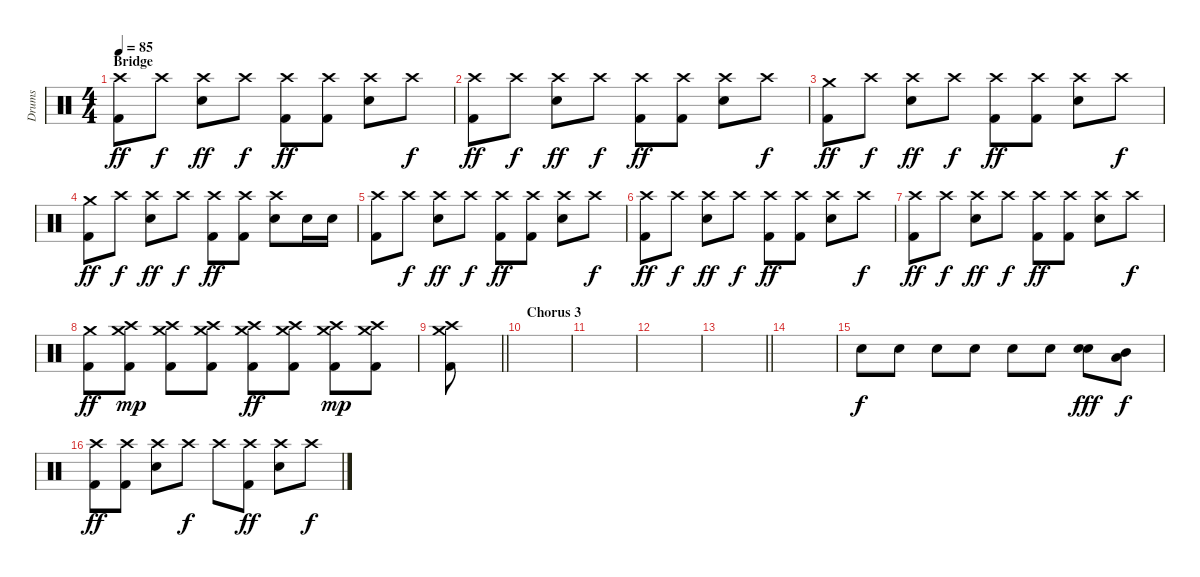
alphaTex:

\track ("Drums" "Drums") {instrument percussion}
\staff {score}
\articulation defaults
\ts (4 4)
\section ("" "Bridge")
\tempo 85
\clef neutral
\ks c
("Crash high (hit)" "Kick (hit) 2").8{dy ff} "Crash high (hit)".8{dy f} ("Crash high (hit)" "Electric Snare (hit)").8{dy ff} "Crash high (hit)".8{dy f} ("Crash high (hit)" "Kick (hit) 2").8{dy ff} ("Crash high (hit)" "Kick (hit) 2").8 ("Crash high (hit)" "Electric Snare (hit)").8 "Crash high (hit)".8{dy f} |
("Crash high (hit)" "Kick (hit) 2").8{dy ff} "Crash high (hit)".8{dy f} ("Crash high (hit)" "Electric Snare (hit)").8{dy ff} "Crash high (hit)".8{dy f} ("Crash high (hit)" "Kick (hit) 2").8{dy ff} ("Crash high (hit)" "Kick (hit) 2").8 ("Crash high (hit)" "Electric Snare (hit)").8 "Crash high (hit)".8{dy f} |
("Crash medium (hit)" "Kick (hit) 2").8{dy ff} "Crash high (hit)".8{dy f} ("Crash high (hit)" "Electric Snare (hit)").8{dy ff} "Crash high (hit)".8{dy f} ("Crash high (hit)" "Kick (hit) 2").8{dy ff} ("Crash high (hit)" "Kick (hit) 2").8 ("Crash high (hit)" "Electric Snare (hit)").8 "Crash high (hit)".8{dy f} |
("Crash medium (hit)" "Kick (hit) 2").8{dy ff} "Crash high (hit)".8{dy f} ("Crash high (hit)" "Electric Snare (hit)").8{dy ff} "Crash high (hit)".8{dy f} ("Crash high (hit)" "Kick (hit) 2").8{dy ff} ("Crash high (hit)" "Kick (hit) 2").8 ("Crash high (hit)" "Electric Snare (hit)").8 "Electric Snare (hit)".16 "Electric Snare (hit)".16 |
("Crash high (hit)" "Kick (hit) 2").8 "Crash high (hit)".8{dy f} ("Crash high (hit)" "Electric Snare (hit)").8{dy ff} "Crash high (hit)".8{dy f} ("Crash high (hit)" "Kick (hit) 2").8{dy ff} ("Crash high (hit)" "Kick (hit) 2").8 ("Crash high (hit)" "Electric Snare (hit)").8 "Crash high (hit)".8{dy f} |
("Crash high (hit)" "Kick (hit) 2").8{dy ff} "Crash high (hit)".8{dy f} ("Crash high (hit)" "Electric Snare (hit)").8{dy ff} "Crash high (hit)".8{dy f} ("Crash high (hit)" "Kick (hit) 2").8{dy ff} ("Crash high (hit)" "Kick (hit) 2").8 ("Crash high (hit)" "Electric Snare (hit)").8 "Crash high (hit)".8{dy f} |
("Crash high (hit)" "Kick (hit) 2").8{dy ff} "Crash high (hit)".8{dy f} ("Crash high (hit)" "Electric Snare (hit)").8{dy ff} "Crash high (hit)".8{dy f} ("Crash high (hit)" "Kick (hit) 2").8{dy ff} ("Crash high (hit)" "Kick (hit) 2").8 ("Crash high (hit)" "Electric Snare (hit)").8 "Crash high (hit)".8{dy f} |
("Crash medium (hit)" "Kick (hit) 2").8{dy ff} ("Crash high (hit)" "Crash medium (hit)" "Kick (hit) 2").8{dy mp} ("Crash high (hit)" "Crash medium (hit)" "Kick (hit) 2").8 ("Crash high (hit)" "Crash medium (hit)" "Kick (hit) 2").8 ("Crash high (hit)" "Crash medium (hit)" "Kick (hit) 2").8{dy ff} ("Crash high (hit)" "Crash medium (hit)" "Kick (hit) 2").8 ("Crash high (hit)" "Crash medium (hit)" "Kick (hit) 2").8{dy mp} ("Crash high (hit)" "Crash medium (hit)" "Kick (hit) 2").8 |
\barLineRight lightlight
("Crash high (hit)" "Crash medium (hit)" "Kick (hit) 2").8 |
\section ("" "Chorus 3")
|
|
|
\barLineRight lightlight
|
|
"Electric Snare (hit)".8{dy f} "Electric Snare (hit)".8 "Electric Snare (hit)".8 "Electric Snare (hit)".8 "Electric Snare (hit)".8 "Electric Snare (hit)".8 ("Electric Snare (hit)" "Electric Snare (hit)").8{dy fff} ("Mid Tom (hit)" "Low Tom (hit)").8{dy f} |
("Crash high (hit)" "Kick (hit) 2").8{dy ff} ("Crash high (hit)" "Kick (hit) 2").8 ("Crash high (hit)" "Electric Snare (hit)").8 "Crash high (hit)".8{dy f} "Crash high (hit)".8 ("Crash high (hit)" "Kick (hit) 2").8{dy ff} ("Crash high (hit)" "Electric Snare (hit)").8 "Crash high (hit)".8{dy f}
